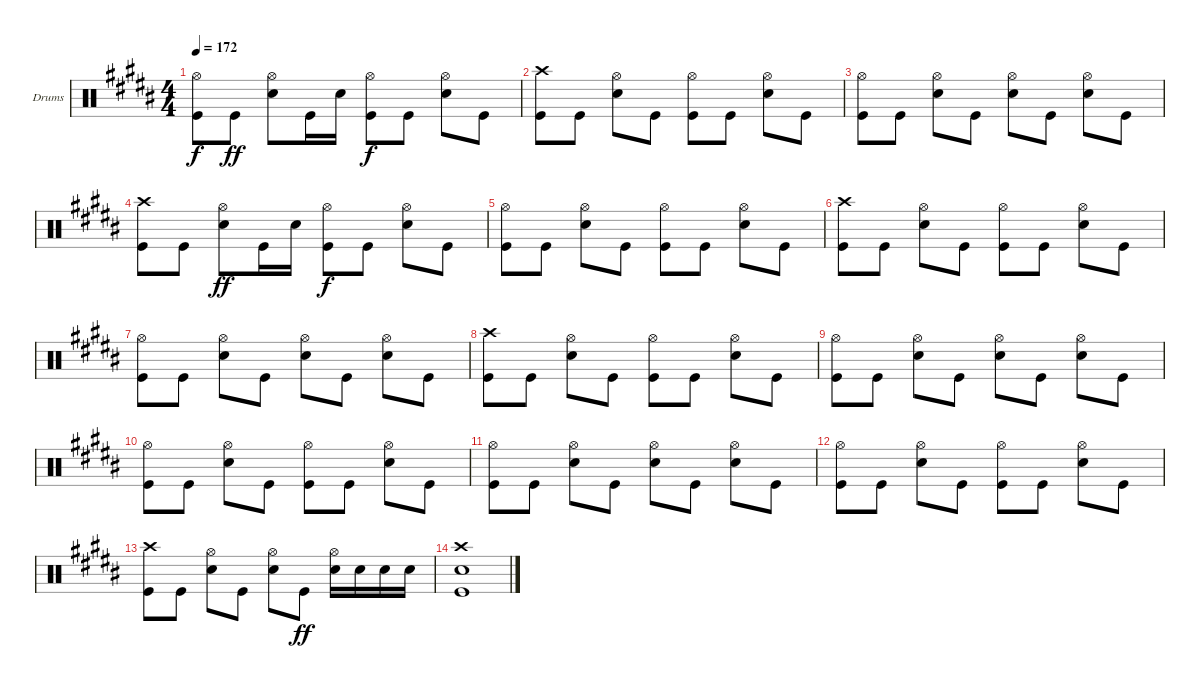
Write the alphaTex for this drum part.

\defaultSystemsLayout 4
\bracketExtendMode groupsimilarinstruments
\firstSystemTrackNameOrientation horizontal
\otherSystemsTrackNameOrientation horizontal
\track ("Drumkit" "Drums") {instrument percussion}
\staff {score}
\articulation defaults
\ts (4 4)
\tempo 172
\clef neutral
\scale
1.07314
\ks b
("Hi-Hat (open)" "Kick (hit)").8{dy f} "Kick (hit)".8{dy ff} ("Hi-Hat (open)" "Snare (hit) 2").8 "Kick (hit)".16 "Snare (hit) 2".16 ("Hi-Hat (open)" "Kick (hit)").8{dy f} "Kick (hit)".8 ("Hi-Hat (open)" "Snare (hit) 2").8 "Kick (hit)".8 |
\scale
0.92686 ("Crash high (hit)" "Kick (hit)").8 "Kick (hit)".8 ("Hi-Hat (open)" "Snare (hit) 2").8 "Kick (hit)".8 ("Hi-Hat (open)" "Kick (hit)").8 "Kick (hit)".8 ("Hi-Hat (open)" "Snare (hit) 2").8 "Kick (hit)".8 |
\scale
1.07314 ("Hi-Hat (open)" "Kick (hit)").8 "Kick (hit)".8 ("Hi-Hat (open)" "Snare (hit) 2").8 "Kick (hit)".8 ("Hi-Hat (open)" "Snare (hit) 2").8 "Kick (hit)".8 ("Hi-Hat (open)" "Snare (hit) 2").8 "Kick (hit)".8 |
\scale
0.92686 ("Crash high (hit)" "Kick (hit)").8 "Kick (hit)".8 ("Hi-Hat (open)" "Snare (hit) 2").8{dy ff} "Kick (hit)".16 "Snare (hit) 2".16 ("Hi-Hat (open)" "Kick (hit)").8{dy f} "Kick (hit)".8 ("Hi-Hat (open)" "Snare (hit) 2").8 "Kick (hit)".8 |
\scale
1.07314 ("Hi-Hat (open)" "Kick (hit)").8 "Kick (hit)".8 ("Hi-Hat (open)" "Snare (hit) 2").8 "Kick (hit)".8 ("Hi-Hat (open)" "Kick (hit)").8 "Kick (hit)".8 ("Hi-Hat (open)" "Snare (hit) 2").8 "Kick (hit)".8 |
\scale
0.92686 ("Crash high (hit)" "Kick (hit)").8 "Kick (hit)".8 ("Hi-Hat (open)" "Snare (hit) 2").8 "Kick (hit)".8 ("Hi-Hat (open)" "Kick (hit)").8 "Kick (hit)".8 ("Hi-Hat (open)" "Snare (hit) 2").8 "Kick (hit)".8 |
\scale
1.07314 ("Hi-Hat (open)" "Kick (hit)").8 "Kick (hit)".8 ("Hi-Hat (open)" "Snare (hit) 2").8 "Kick (hit)".8 ("Hi-Hat (open)" "Snare (hit) 2").8 "Kick (hit)".8 ("Hi-Hat (open)" "Snare (hit) 2").8 "Kick (hit)".8 |
\scale
0.92686 ("Crash high (hit)" "Kick (hit)").8 "Kick (hit)".8 ("Hi-Hat (open)" "Snare (hit) 2").8 "Kick (hit)".8 ("Hi-Hat (open)" "Kick (hit)").8 "Kick (hit)".8 ("Hi-Hat (open)" "Snare (hit) 2").8 "Kick (hit)".8 |
\scale
1.07314 ("Hi-Hat (open)" "Kick (hit)").8 "Kick (hit)".8 ("Hi-Hat (open)" "Snare (hit) 2").8 "Kick (hit)".8 ("Hi-Hat (open)" "Snare (hit) 2").8 "Kick (hit)".8 ("Hi-Hat (open)" "Snare (hit) 2").8 "Kick (hit)".8 |
\scale
0.92686 ("Hi-Hat (open)" "Kick (hit)").8 "Kick (hit)".8 ("Hi-Hat (open)" "Snare (hit) 2").8 "Kick (hit)".8 ("Hi-Hat (open)" "Kick (hit)").8 "Kick (hit)".8 ("Hi-Hat (open)" "Snare (hit) 2").8 "Kick (hit)".8 |
\scale
1.07314 ("Hi-Hat (open)" "Kick (hit)").8 "Kick (hit)".8 ("Hi-Hat (open)" "Snare (hit) 2").8 "Kick (hit)".8 ("Hi-Hat (open)" "Snare (hit) 2").8 "Kick (hit)".8 ("Hi-Hat (open)" "Snare (hit) 2").8 "Kick (hit)".8 |
\scale
0.92686 ("Hi-Hat (open)" "Kick (hit)").8 "Kick (hit)".8 ("Hi-Hat (open)" "Snare (hit) 2").8 "Kick (hit)".8 ("Hi-Hat (open)" "Kick (hit)").8 "Kick (hit)".8 ("Hi-Hat (open)" "Snare (hit) 2").8 "Kick (hit)".8 |
\scale
1.07314 ("Crash high (hit)" "Kick (hit)").8 "Kick (hit)".8 ("Hi-Hat (open)" "Snare (hit) 2").8 "Kick (hit)".8 ("Hi-Hat (open)" "Snare (hit) 2").8 "Kick (hit)".8{dy ff} ("Hi-Hat (open)" "Snare (hit) 2").16 "Snare (hit) 2".16 "Snare (hit) 2".16 "Snare (hit) 2".16 |
\scale
0.92686 ("Crash high (hit)" "Snare (hit) 2" "Kick (hit)").1 |
\scale
1.07314 |
\scale
0.92686
